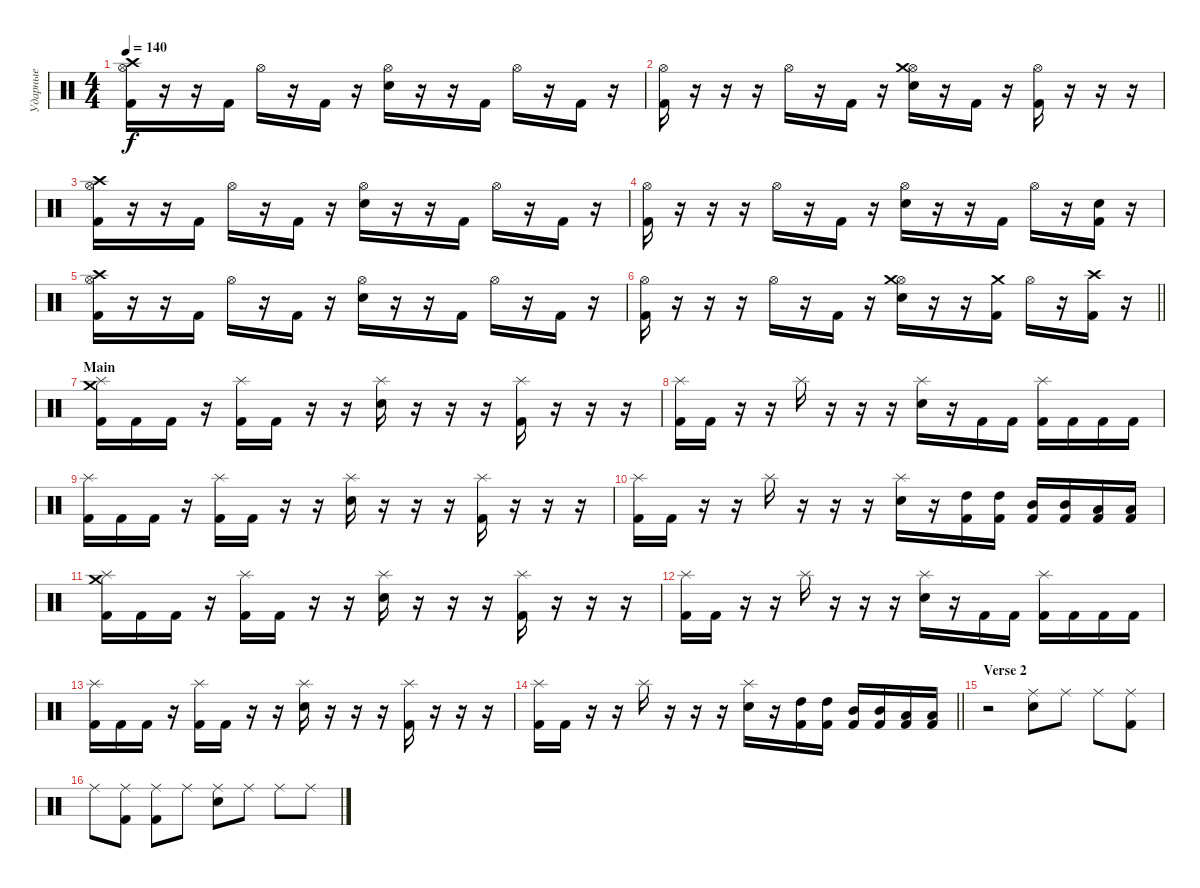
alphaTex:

\track ("Ударные" "Ударные") {instrument percussion}
\staff {score}
\articulation defaults
\ts (4 4)
\tempo 140
\clef neutral
\ks c
("Hi-Hat (open)" "Crash high (hit)" "Kick (hit) 2").16{dy f} r.16 r.16 "Kick (hit) 2".16 "Hi-Hat (open)".16 r.16 "Kick (hit) 2".16 r.16 ("Hi-Hat (open)" "Snare (hit) 2").16 r.16 r.16 "Kick (hit) 2".16 "Hi-Hat (open)".16 r.16 "Kick (hit) 2".16 r.16 |
("Hi-Hat (open)" "Kick (hit) 2").16 r.16 r.16 r.16 "Hi-Hat (open)".16 r.16 "Kick (hit) 2".16 r.16 ("Hi-Hat (open)" "Crash medium (hit)" "Snare (hit) 2").16 r.16 "Kick (hit) 2".16 r.16 ("Hi-Hat (open)" "Kick (hit) 2").16 r.16 r.16 r.16 |
("Hi-Hat (open)" "Crash high (hit)" "Kick (hit) 2").16 r.16 r.16 "Kick (hit) 2".16 "Hi-Hat (open)".16 r.16 "Kick (hit) 2".16 r.16 ("Hi-Hat (open)" "Snare (hit) 2").16 r.16 r.16 "Kick (hit) 2".16 "Hi-Hat (open)".16 r.16 "Kick (hit) 2".16 r.16 |
("Hi-Hat (open)" "Kick (hit) 2").16 r.16 r.16 r.16 "Hi-Hat (open)".16 r.16 "Kick (hit) 2".16 r.16 ("Hi-Hat (open)" "Snare (hit) 2").16 r.16 r.16 "Kick (hit) 2".16 "Hi-Hat (open)".16 r.16 ("Snare (hit) 2" "Kick (hit) 2").16 r.16 |
("Hi-Hat (open)" "Crash high (hit)" "Kick (hit) 2").16 r.16 r.16 "Kick (hit) 2".16 "Hi-Hat (open)".16 r.16 "Kick (hit) 2".16 r.16 ("Hi-Hat (open)" "Snare (hit) 2").16 r.16 r.16 "Kick (hit) 2".16 "Hi-Hat (open)".16 r.16 "Kick (hit) 2".16 r.16 |
\barLineRight lightlight
("Hi-Hat (open)" "Kick (hit) 2").16 r.16 r.16 r.16 "Hi-Hat (open)".16 r.16 "Kick (hit) 2".16 r.16 ("Hi-Hat (open)" "Crash medium (hit)" "Snare (hit) 2").16 r.16 r.16 ("Crash medium (hit)" "Kick (hit) 2").16 "Hi-Hat (open)".16 r.16 ("Crash high (hit)" "Kick (hit) 2").16 r.16 |
\section ("" "Main")
("Crash medium (hit)" "Splash (hit)" "Kick (hit) 2").16 "Kick (hit) 2".16 "Kick (hit) 2".16 r.16 ("Splash (hit)" "Kick (hit) 2").16 "Kick (hit) 2".16 r.16 r.16 ("Splash (hit)" "Snare (hit) 2").16 r.16 r.16 r.16 ("Splash (hit)" "Kick (hit) 2").16 r.16 r.16 r.16 |
("Splash (hit)" "Kick (hit) 2").16 "Kick (hit) 2".16 r.16 r.16 "Splash (hit)".16 r.16 r.16 r.16 ("Splash (hit)" "Snare (hit) 2").16 r.16 "Kick (hit) 2".16 "Kick (hit) 2".16 ("Splash (hit)" "Kick (hit) 2").16 "Kick (hit) 2".16 "Kick (hit) 2".16 "Kick (hit) 2".16 |
("Splash (hit)" "Kick (hit) 2").16 "Kick (hit) 2".16 "Kick (hit) 2".16 r.16 ("Splash (hit)" "Kick (hit) 2").16 "Kick (hit) 2".16 r.16 r.16 ("Splash (hit)" "Snare (hit) 2").16 r.16 r.16 r.16 ("Splash (hit)" "Kick (hit) 2").16 r.16 r.16 r.16 |
("Splash (hit)" "Kick (hit) 2").16 "Kick (hit) 2".16 r.16 r.16 "Splash (hit)".16 r.16 r.16 r.16 ("Splash (hit)" "Snare (hit) 2").16 r.16 ("High Tom (hit)" "Kick (hit) 2").16 ("High Tom (hit)" "Kick (hit) 2").16 ("Mid Tom (hit)" "Kick (hit) 2").16 ("Mid Tom (hit)" "Kick (hit) 2").16 ("Low Tom (hit)" "Kick (hit) 2").16 ("Low Tom (hit)" "Kick (hit) 2").16 |
("Crash medium (hit)" "Splash (hit)" "Kick (hit) 2").16 "Kick (hit) 2".16 "Kick (hit) 2".16 r.16 ("Splash (hit)" "Kick (hit) 2").16 "Kick (hit) 2".16 r.16 r.16 ("Splash (hit)" "Snare (hit) 2").16 r.16 r.16 r.16 ("Splash (hit)" "Kick (hit) 2").16 r.16 r.16 r.16 |
("Splash (hit)" "Kick (hit) 2").16 "Kick (hit) 2".16 r.16 r.16 "Splash (hit)".16 r.16 r.16 r.16 ("Splash (hit)" "Snare (hit) 2").16 r.16 "Kick (hit) 2".16 "Kick (hit) 2".16 ("Splash (hit)" "Kick (hit) 2").16 "Kick (hit) 2".16 "Kick (hit) 2".16 "Kick (hit) 2".16 |
("Splash (hit)" "Kick (hit) 2").16 "Kick (hit) 2".16 "Kick (hit) 2".16 r.16 ("Splash (hit)" "Kick (hit) 2").16 "Kick (hit) 2".16 r.16 r.16 ("Splash (hit)" "Snare (hit) 2").16 r.16 r.16 r.16 ("Splash (hit)" "Kick (hit) 2").16 r.16 r.16 r.16 |
\barLineRight lightlight
("Splash (hit)" "Kick (hit) 2").16 "Kick (hit) 2".16 r.16 r.16 "Splash (hit)".16 r.16 r.16 r.16 ("Splash (hit)" "Snare (hit) 2").16 r.16 ("High Tom (hit)" "Kick (hit) 2").16 ("High Tom (hit)" "Kick (hit) 2").16 ("Mid Tom (hit)" "Kick (hit) 2").16 ("Mid Tom (hit)" "Kick (hit) 2").16 ("Low Tom (hit)" "Kick (hit) 2").16 ("Low Tom (hit)" "Kick (hit) 2").16 |
\section ("" "Verse 2")
r.2 ("Ride (middle)" "Snare (hit) 2").8 "Ride (middle)".8 "Ride (middle)".8 ("Ride (middle)" "Kick (hit) 2").8 |
"Ride (middle)".8 ("Ride (middle)" "Kick (hit) 2").8 ("Ride (middle)" "Kick (hit) 2").8 "Ride (middle)".8 ("Ride (middle)" "Snare (hit) 2").8 "Ride (middle)".8 "Ride (middle)".8 "Ride (middle)".8
